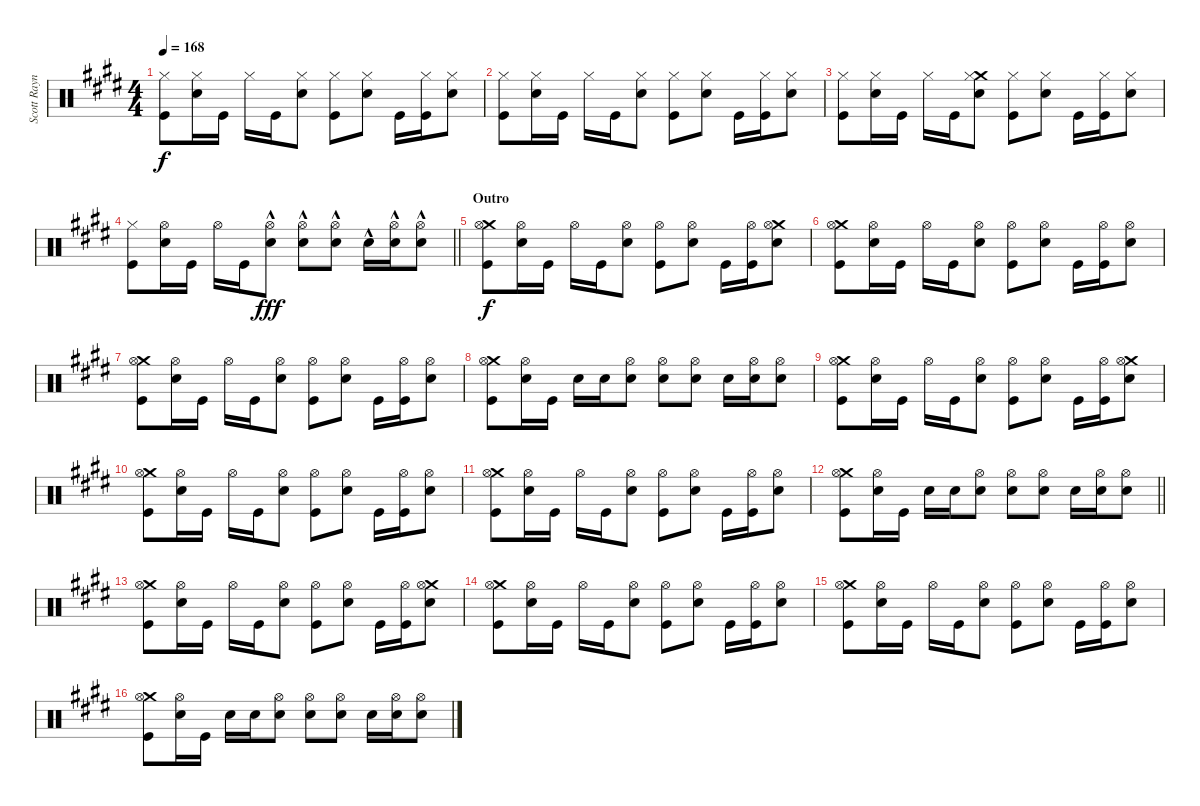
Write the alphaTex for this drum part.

\track ("Scott Raynor" "Scott Rayn") {instrument percussion}
\staff {score}
\articulation defaults
\ts (4 4)
\tempo 168
\clef neutral
\ks e
("Hi-Hat (closed)" "Kick (hit)").8{dy f} ("Hi-Hat (closed)" "Electric Snare (hit)").16 "Kick (hit)".16 "Hi-Hat (closed)".16 "Kick (hit)".16 ("Hi-Hat (closed)" "Electric Snare (hit)").8 ("Hi-Hat (closed)" "Kick (hit)").8 ("Hi-Hat (closed)" "Electric Snare (hit)").8 "Kick (hit)".16 ("Hi-Hat (closed)" "Kick (hit)").16 ("Hi-Hat (closed)" "Electric Snare (hit)").8 |
("Hi-Hat (closed)" "Kick (hit)").8 ("Hi-Hat (closed)" "Electric Snare (hit)").16 "Kick (hit)".16 "Hi-Hat (closed)".16 "Kick (hit)".16 ("Hi-Hat (closed)" "Electric Snare (hit)").8 ("Hi-Hat (closed)" "Kick (hit)").8 ("Hi-Hat (closed)" "Electric Snare (hit)").8 "Kick (hit)".16 ("Hi-Hat (closed)" "Kick (hit)").16 ("Hi-Hat (closed)" "Electric Snare (hit)").8 |
("Hi-Hat (closed)" "Kick (hit)").8 ("Hi-Hat (closed)" "Electric Snare (hit)").16 "Kick (hit)".16 "Hi-Hat (closed)".16 "Kick (hit)".16 ("Crash medium (hit)" "Hi-Hat (closed)" "Electric Snare (hit)").8 ("Hi-Hat (closed)" "Kick (hit)").8 ("Hi-Hat (closed)" "Electric Snare (hit)").8 "Kick (hit)".16 ("Hi-Hat (closed)" "Kick (hit)").16 ("Hi-Hat (closed)" "Electric Snare (hit)").8 |
\barLineRight lightlight
("Hi-Hat (closed)" "Kick (hit)").8 ("Hi-Hat (open)" "Electric Snare (hit)").16 "Kick (hit)".16 "Hi-Hat (open)".16 "Kick (hit)".16 ("Hi-Hat (open)" "Electric Snare (hit)"{hac}).8{dy fff} ("Hi-Hat (open)" "Electric Snare (hit)"{hac}).8 ("Hi-Hat (open)" "Electric Snare (hit)"{hac}).8 "Electric Snare (hit)"{hac}.16 ("Hi-Hat (open)" "Electric Snare (hit)"{hac}).16 ("Hi-Hat (open)" "Electric Snare (hit)"{hac}).8 |
\section ("" "Outro")
("Crash medium (hit)" "Hi-Hat (open)" "Kick (hit)").8{dy f} ("Hi-Hat (open)" "Electric Snare (hit)").16 "Kick (hit)".16 "Hi-Hat (open)".16 "Kick (hit)".16 ("Hi-Hat (open)" "Electric Snare (hit)").8 ("Hi-Hat (open)" "Kick (hit)").8 ("Hi-Hat (open)" "Electric Snare (hit)").8 "Kick (hit)".16 ("Hi-Hat (open)" "Kick (hit)").16 ("Crash medium (hit)" "Hi-Hat (open)" "Electric Snare (hit)").8 |
("Crash medium (hit)" "Hi-Hat (open)" "Kick (hit)").8 ("Hi-Hat (open)" "Electric Snare (hit)").16 "Kick (hit)".16 "Hi-Hat (open)".16 "Kick (hit)".16 ("Hi-Hat (open)" "Electric Snare (hit)").8 ("Hi-Hat (open)" "Kick (hit)").8 ("Hi-Hat (open)" "Electric Snare (hit)").8 "Kick (hit)".16 ("Hi-Hat (open)" "Kick (hit)").16 ("Hi-Hat (open)" "Electric Snare (hit)").8 |
("Crash medium (hit)" "Hi-Hat (open)" "Kick (hit)").8 ("Hi-Hat (open)" "Electric Snare (hit)").16 "Kick (hit)".16 "Hi-Hat (open)".16 "Kick (hit)".16 ("Hi-Hat (open)" "Electric Snare (hit)").8 ("Hi-Hat (open)" "Kick (hit)").8 ("Hi-Hat (open)" "Electric Snare (hit)").8 "Kick (hit)".16 ("Hi-Hat (open)" "Kick (hit)").16 ("Hi-Hat (open)" "Electric Snare (hit)").8 |
("Crash medium (hit)" "Hi-Hat (open)" "Kick (hit)").8 ("Hi-Hat (open)" "Electric Snare (hit)").16 "Kick (hit)".16 "Electric Snare (hit)".16 "Electric Snare (hit)".16 ("Hi-Hat (open)" "Electric Snare (hit)").8 ("Hi-Hat (open)" "Electric Snare (hit)").8 ("Hi-Hat (open)" "Electric Snare (hit)").8 "Electric Snare (hit)".16 ("Hi-Hat (open)" "Electric Snare (hit)").16 ("Hi-Hat (open)" "Electric Snare (hit)").8 |
("Crash medium (hit)" "Hi-Hat (open)" "Kick (hit)").8 ("Hi-Hat (open)" "Electric Snare (hit)").16 "Kick (hit)".16 "Hi-Hat (open)".16 "Kick (hit)".16 ("Hi-Hat (open)" "Electric Snare (hit)").8 ("Hi-Hat (open)" "Kick (hit)").8 ("Hi-Hat (open)" "Electric Snare (hit)").8 "Kick (hit)".16 ("Hi-Hat (open)" "Kick (hit)").16 ("Crash medium (hit)" "Hi-Hat (open)" "Electric Snare (hit)").8 |
("Crash medium (hit)" "Hi-Hat (open)" "Kick (hit)").8 ("Hi-Hat (open)" "Electric Snare (hit)").16 "Kick (hit)".16 "Hi-Hat (open)".16 "Kick (hit)".16 ("Hi-Hat (open)" "Electric Snare (hit)").8 ("Hi-Hat (open)" "Kick (hit)").8 ("Hi-Hat (open)" "Electric Snare (hit)").8 "Kick (hit)".16 ("Hi-Hat (open)" "Kick (hit)").16 ("Hi-Hat (open)" "Electric Snare (hit)").8 |
("Crash medium (hit)" "Hi-Hat (open)" "Kick (hit)").8 ("Hi-Hat (open)" "Electric Snare (hit)").16 "Kick (hit)".16 "Hi-Hat (open)".16 "Kick (hit)".16 ("Hi-Hat (open)" "Electric Snare (hit)").8 ("Hi-Hat (open)" "Kick (hit)").8 ("Hi-Hat (open)" "Electric Snare (hit)").8 "Kick (hit)".16 ("Hi-Hat (open)" "Kick (hit)").16 ("Hi-Hat (open)" "Electric Snare (hit)").8 |
\barLineRight lightlight
("Crash medium (hit)" "Hi-Hat (open)" "Kick (hit)").8 ("Hi-Hat (open)" "Electric Snare (hit)").16 "Kick (hit)".16 "Electric Snare (hit)".16 "Electric Snare (hit)".16 ("Hi-Hat (open)" "Electric Snare (hit)").8 ("Hi-Hat (open)" "Electric Snare (hit)").8 ("Hi-Hat (open)" "Electric Snare (hit)").8 "Electric Snare (hit)".16 ("Hi-Hat (open)" "Electric Snare (hit)").16 ("Hi-Hat (open)" "Electric Snare (hit)").8 |
("Crash medium (hit)" "Hi-Hat (open)" "Kick (hit)").8 ("Hi-Hat (open)" "Electric Snare (hit)").16 "Kick (hit)".16 "Hi-Hat (open)".16 "Kick (hit)".16 ("Hi-Hat (open)" "Electric Snare (hit)").8 ("Hi-Hat (open)" "Kick (hit)").8 ("Hi-Hat (open)" "Electric Snare (hit)").8 "Kick (hit)".16 ("Hi-Hat (open)" "Kick (hit)").16 ("Crash medium (hit)" "Hi-Hat (open)" "Electric Snare (hit)").8 |
("Crash medium (hit)" "Hi-Hat (open)" "Kick (hit)").8 ("Hi-Hat (open)" "Electric Snare (hit)").16 "Kick (hit)".16 "Hi-Hat (open)".16 "Kick (hit)".16 ("Hi-Hat (open)" "Electric Snare (hit)").8 ("Hi-Hat (open)" "Kick (hit)").8 ("Hi-Hat (open)" "Electric Snare (hit)").8 "Kick (hit)".16 ("Hi-Hat (open)" "Kick (hit)").16 ("Hi-Hat (open)" "Electric Snare (hit)").8 |
("Crash medium (hit)" "Hi-Hat (open)" "Kick (hit)").8 ("Hi-Hat (open)" "Electric Snare (hit)").16 "Kick (hit)".16 "Hi-Hat (open)".16 "Kick (hit)".16 ("Hi-Hat (open)" "Electric Snare (hit)").8 ("Hi-Hat (open)" "Kick (hit)").8 ("Hi-Hat (open)" "Electric Snare (hit)").8 "Kick (hit)".16 ("Hi-Hat (open)" "Kick (hit)").16 ("Hi-Hat (open)" "Electric Snare (hit)").8 |
("Crash medium (hit)" "Hi-Hat (open)" "Kick (hit)").8 ("Hi-Hat (open)" "Electric Snare (hit)").16 "Kick (hit)".16 "Electric Snare (hit)".16 "Electric Snare (hit)".16 ("Hi-Hat (open)" "Electric Snare (hit)").8 ("Hi-Hat (open)" "Electric Snare (hit)").8 ("Hi-Hat (open)" "Electric Snare (hit)").8 "Electric Snare (hit)".16 ("Hi-Hat (open)" "Electric Snare (hit)").16 ("Hi-Hat (open)" "Electric Snare (hit)").8
